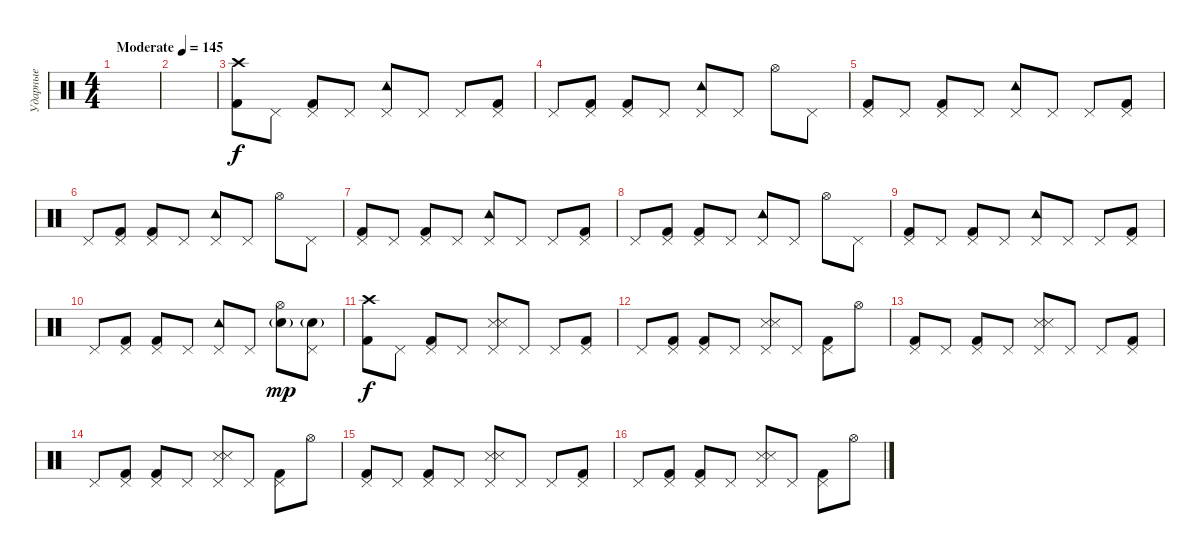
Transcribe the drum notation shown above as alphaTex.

\track ("Ударные" "Ударные") {instrument percussion}
\staff {score}
\articulation defaults
\ts (4 4)
\tempo (145 "Moderate")
\clef neutral
\ks c
|
|
("Crash high (hit)" "Kick (hit) 2").8 "Pedal Hi-Hat (hit)".8 ("Pedal Hi-Hat (hit)" "Kick (hit) 2").8 "Pedal Hi-Hat (hit)".8 ("Pedal Hi-Hat (hit)" "Tambourine (hit)").8 "Pedal Hi-Hat (hit)".8 "Pedal Hi-Hat (hit)".8 ("Pedal Hi-Hat (hit)" "Kick (hit) 2").8 |
"Pedal Hi-Hat (hit)".8 ("Pedal Hi-Hat (hit)" "Kick (hit) 2").8 ("Pedal Hi-Hat (hit)" "Kick (hit) 2").8 "Pedal Hi-Hat (hit)".8 ("Pedal Hi-Hat (hit)" "Tambourine (hit)").8 "Pedal Hi-Hat (hit)".8 "Hi-Hat (open)".8 "Pedal Hi-Hat (hit)".8 |
("Pedal Hi-Hat (hit)" "Kick (hit) 2").8 "Pedal Hi-Hat (hit)".8 ("Pedal Hi-Hat (hit)" "Kick (hit) 2").8 "Pedal Hi-Hat (hit)".8 ("Pedal Hi-Hat (hit)" "Tambourine (hit)").8 "Pedal Hi-Hat (hit)".8 "Pedal Hi-Hat (hit)".8 ("Pedal Hi-Hat (hit)" "Kick (hit) 2").8 |
"Pedal Hi-Hat (hit)".8 ("Pedal Hi-Hat (hit)" "Kick (hit) 2").8 ("Pedal Hi-Hat (hit)" "Kick (hit) 2").8 "Pedal Hi-Hat (hit)".8 ("Pedal Hi-Hat (hit)" "Tambourine (hit)").8 "Pedal Hi-Hat (hit)".8 "Hi-Hat (open)".8 "Pedal Hi-Hat (hit)".8 |
("Pedal Hi-Hat (hit)" "Kick (hit) 2").8 "Pedal Hi-Hat (hit)".8 ("Pedal Hi-Hat (hit)" "Kick (hit) 2").8 "Pedal Hi-Hat (hit)".8 ("Pedal Hi-Hat (hit)" "Tambourine (hit)").8 "Pedal Hi-Hat (hit)".8 "Pedal Hi-Hat (hit)".8 ("Pedal Hi-Hat (hit)" "Kick (hit) 2").8 |
"Pedal Hi-Hat (hit)".8 ("Pedal Hi-Hat (hit)" "Kick (hit) 2").8 ("Pedal Hi-Hat (hit)" "Kick (hit) 2").8 "Pedal Hi-Hat (hit)".8 ("Pedal Hi-Hat (hit)" "Tambourine (hit)").8 "Pedal Hi-Hat (hit)".8 "Hi-Hat (open)".8 "Pedal Hi-Hat (hit)".8 |
("Pedal Hi-Hat (hit)" "Kick (hit) 2").8 "Pedal Hi-Hat (hit)".8 ("Pedal Hi-Hat (hit)" "Kick (hit) 2").8 "Pedal Hi-Hat (hit)".8 ("Pedal Hi-Hat (hit)" "Tambourine (hit)").8 "Pedal Hi-Hat (hit)".8 "Pedal Hi-Hat (hit)".8 ("Pedal Hi-Hat (hit)" "Kick (hit) 2").8 |
"Pedal Hi-Hat (hit)".8 ("Pedal Hi-Hat (hit)" "Kick (hit) 2").8 ("Pedal Hi-Hat (hit)" "Kick (hit) 2").8 "Pedal Hi-Hat (hit)".8 ("Pedal Hi-Hat (hit)" "Tambourine (hit)").8 "Pedal Hi-Hat (hit)".8 ("Hi-Hat (open)" "Snare (hit) 2"{g}).8{dy mp} ("Pedal Hi-Hat (hit)" "Snare (hit) 2"{g}).8 |
("Crash high (hit)" "Kick (hit) 2").8{dy f} "Pedal Hi-Hat (hit)".8 ("Pedal Hi-Hat (hit)" "Kick (hit) 2").8 "Pedal Hi-Hat (hit)".8 ("Pedal Hi-Hat (hit)" "Metronome (hit)" "Metronome (hit)").8 "Pedal Hi-Hat (hit)".8 "Pedal Hi-Hat (hit)".8 ("Pedal Hi-Hat (hit)" "Kick (hit) 2").8 |
"Pedal Hi-Hat (hit)".8 ("Pedal Hi-Hat (hit)" "Kick (hit) 2").8 ("Pedal Hi-Hat (hit)" "Kick (hit) 2").8 "Pedal Hi-Hat (hit)".8 ("Pedal Hi-Hat (hit)" "Metronome (hit)" "Metronome (hit)").8 "Pedal Hi-Hat (hit)".8 ("Pedal Hi-Hat (hit)" "Kick (hit) 2").8 "Hi-Hat (open)".8 |
("Pedal Hi-Hat (hit)" "Kick (hit) 2").8 "Pedal Hi-Hat (hit)".8 ("Pedal Hi-Hat (hit)" "Kick (hit) 2").8 "Pedal Hi-Hat (hit)".8 ("Pedal Hi-Hat (hit)" "Metronome (hit)" "Metronome (hit)").8 "Pedal Hi-Hat (hit)".8 "Pedal Hi-Hat (hit)".8 ("Pedal Hi-Hat (hit)" "Kick (hit) 2").8 |
"Pedal Hi-Hat (hit)".8 ("Pedal Hi-Hat (hit)" "Kick (hit) 2").8 ("Pedal Hi-Hat (hit)" "Kick (hit) 2").8 "Pedal Hi-Hat (hit)".8 ("Pedal Hi-Hat (hit)" "Metronome (hit)" "Metronome (hit)").8 "Pedal Hi-Hat (hit)".8 ("Pedal Hi-Hat (hit)" "Kick (hit) 2").8 "Hi-Hat (open)".8 |
("Pedal Hi-Hat (hit)" "Kick (hit) 2").8 "Pedal Hi-Hat (hit)".8 ("Pedal Hi-Hat (hit)" "Kick (hit) 2").8 "Pedal Hi-Hat (hit)".8 ("Pedal Hi-Hat (hit)" "Metronome (hit)" "Metronome (hit)").8 "Pedal Hi-Hat (hit)".8 "Pedal Hi-Hat (hit)".8 ("Pedal Hi-Hat (hit)" "Kick (hit) 2").8 |
"Pedal Hi-Hat (hit)".8 ("Pedal Hi-Hat (hit)" "Kick (hit) 2").8 ("Pedal Hi-Hat (hit)" "Kick (hit) 2").8 "Pedal Hi-Hat (hit)".8 ("Pedal Hi-Hat (hit)" "Metronome (hit)" "Metronome (hit)").8 "Pedal Hi-Hat (hit)".8 ("Pedal Hi-Hat (hit)" "Kick (hit) 2").8 "Hi-Hat (open)".8
